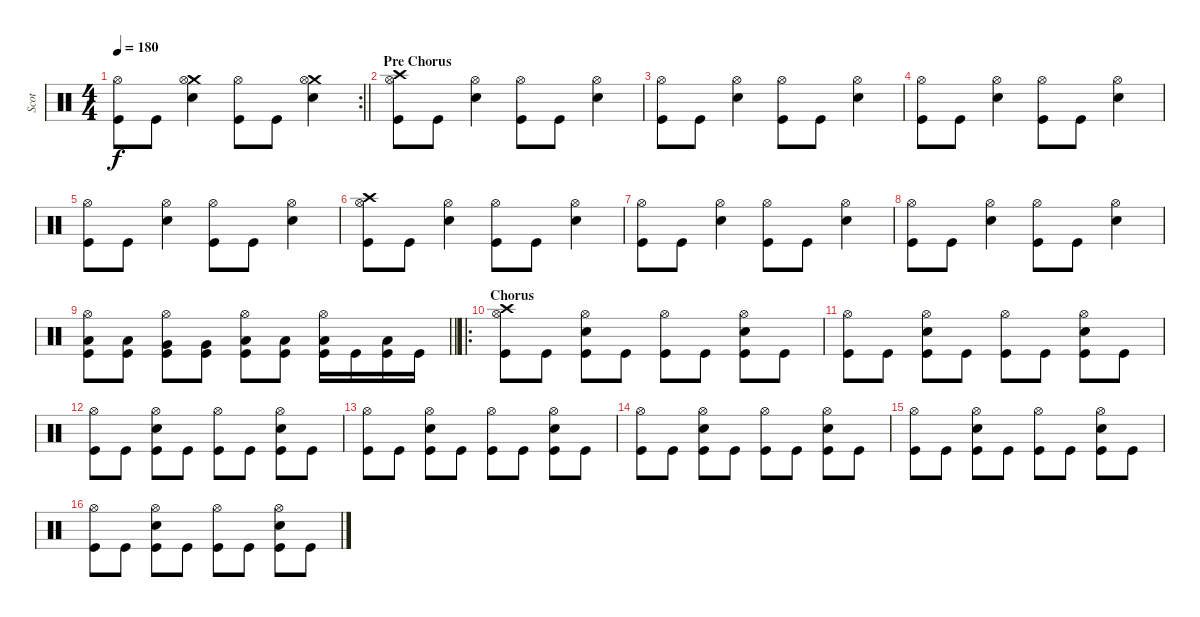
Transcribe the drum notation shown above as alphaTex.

\track ("Scot" "Scot") {instrument percussion}
\staff {score}
\articulation defaults
\rc 2
\ts (4 4)
\tempo 180
\clef neutral
\barLineRight lightlight
\ks c
("Hi-Hat (open)" "Kick (hit)").8{dy f} "Kick (hit)".8 ("Crash medium (hit)" "Electric Snare (hit)" "Hi-Hat (open)").4 ("Hi-Hat (open)" "Kick (hit)").8 "Kick (hit)".8 ("Crash medium (hit)" "Electric Snare (hit)" "Hi-Hat (open)").4 |
\section ("" "Pre Chorus")
("Crash high (hit)" "Hi-Hat (open)" "Kick (hit)").8 "Kick (hit)".8 ("Snare (hit) 2" "Hi-Hat (open)").4 ("Hi-Hat (open)" "Kick (hit)").8 "Kick (hit)".8 ("Snare (hit) 2" "Hi-Hat (open)").4 |
("Hi-Hat (open)" "Kick (hit)").8 "Kick (hit)".8 ("Snare (hit) 2" "Hi-Hat (open)").4 ("Hi-Hat (open)" "Kick (hit)").8 "Kick (hit)".8 ("Snare (hit) 2" "Hi-Hat (open)").4 |
("Hi-Hat (open)" "Kick (hit)").8 "Kick (hit)".8 ("Snare (hit) 2" "Hi-Hat (open)").4 ("Hi-Hat (open)" "Kick (hit)").8 "Kick (hit)".8 ("Snare (hit) 2" "Hi-Hat (open)").4 |
("Hi-Hat (open)" "Kick (hit)").8 "Kick (hit)".8 ("Snare (hit) 2" "Hi-Hat (open)").4 ("Hi-Hat (open)" "Kick (hit)").8 "Kick (hit)".8 ("Snare (hit) 2" "Hi-Hat (open)").4 |
("Crash high (hit)" "Hi-Hat (open)" "Kick (hit)").8 "Kick (hit)".8 ("Snare (hit) 2" "Hi-Hat (open)").4 ("Hi-Hat (open)" "Kick (hit)").8 "Kick (hit)".8 ("Snare (hit) 2" "Hi-Hat (open)").4 |
("Hi-Hat (open)" "Kick (hit)").8 "Kick (hit)".8 ("Snare (hit) 2" "Hi-Hat (open)").4 ("Hi-Hat (open)" "Kick (hit)").8 "Kick (hit)".8 ("Snare (hit) 2" "Hi-Hat (open)").4 |
("Hi-Hat (open)" "Kick (hit)").8 "Kick (hit)".8 ("Snare (hit) 2" "Hi-Hat (open)").4 ("Hi-Hat (open)" "Kick (hit)").8 "Kick (hit)".8 ("Snare (hit) 2" "Hi-Hat (open)").4 |
\barLineRight lightlight
("Low Tom (hit)" "Hi-Hat (open)" "Kick (hit)").8 ("Low Tom (hit)" "Kick (hit)").8 ("Very Low Tom (hit)" "Hi-Hat (open)" "Kick (hit)").8 ("Very Low Tom (hit)" "Kick (hit)").8 ("Low Floor Tom (hit)" "Hi-Hat (open)" "Kick (hit)").8 ("Low Floor Tom (hit)" "Kick (hit)").8 ("Low Floor Tom (hit)" "Hi-Hat (open)" "Kick (hit)").16 "Kick (hit)".16 ("Low Floor Tom (hit)" "Kick (hit)").16 "Kick (hit)".16 |
\ro
\section ("" "Chorus")
("Crash high (hit)" "Hi-Hat (open)" "Kick (hit)").8 "Kick (hit)".8 ("Electric Snare (hit)" "Hi-Hat (open)" "Kick (hit)").8 "Kick (hit)".8 ("Hi-Hat (open)" "Kick (hit)").8 "Kick (hit)".8 ("Electric Snare (hit)" "Hi-Hat (open)" "Kick (hit)").8 "Kick (hit)".8 |
("Hi-Hat (open)" "Kick (hit)").8 "Kick (hit)".8 ("Electric Snare (hit)" "Hi-Hat (open)" "Kick (hit)").8 "Kick (hit)".8 ("Hi-Hat (open)" "Kick (hit)").8 "Kick (hit)".8 ("Electric Snare (hit)" "Hi-Hat (open)" "Kick (hit)").8 "Kick (hit)".8 |
("Hi-Hat (open)" "Kick (hit)").8 "Kick (hit)".8 ("Electric Snare (hit)" "Hi-Hat (open)" "Kick (hit)").8 "Kick (hit)".8 ("Hi-Hat (open)" "Kick (hit)").8 "Kick (hit)".8 ("Electric Snare (hit)" "Hi-Hat (open)" "Kick (hit)").8 "Kick (hit)".8 |
("Hi-Hat (open)" "Kick (hit)").8 "Kick (hit)".8 ("Electric Snare (hit)" "Hi-Hat (open)" "Kick (hit)").8 "Kick (hit)".8 ("Hi-Hat (open)" "Kick (hit)").8 "Kick (hit)".8 ("Electric Snare (hit)" "Hi-Hat (open)" "Kick (hit)").8 "Kick (hit)".8 |
("Hi-Hat (open)" "Kick (hit)").8 "Kick (hit)".8 ("Electric Snare (hit)" "Hi-Hat (open)" "Kick (hit)").8 "Kick (hit)".8 ("Hi-Hat (open)" "Kick (hit)").8 "Kick (hit)".8 ("Electric Snare (hit)" "Hi-Hat (open)" "Kick (hit)").8 "Kick (hit)".8 |
("Hi-Hat (open)" "Kick (hit)").8 "Kick (hit)".8 ("Electric Snare (hit)" "Hi-Hat (open)" "Kick (hit)").8 "Kick (hit)".8 ("Hi-Hat (open)" "Kick (hit)").8 "Kick (hit)".8 ("Electric Snare (hit)" "Hi-Hat (open)" "Kick (hit)").8 "Kick (hit)".8 |
("Hi-Hat (open)" "Kick (hit)").8 "Kick (hit)".8 ("Electric Snare (hit)" "Hi-Hat (open)" "Kick (hit)").8 "Kick (hit)".8 ("Hi-Hat (open)" "Kick (hit)").8 "Kick (hit)".8 ("Electric Snare (hit)" "Hi-Hat (open)" "Kick (hit)").8 "Kick (hit)".8
